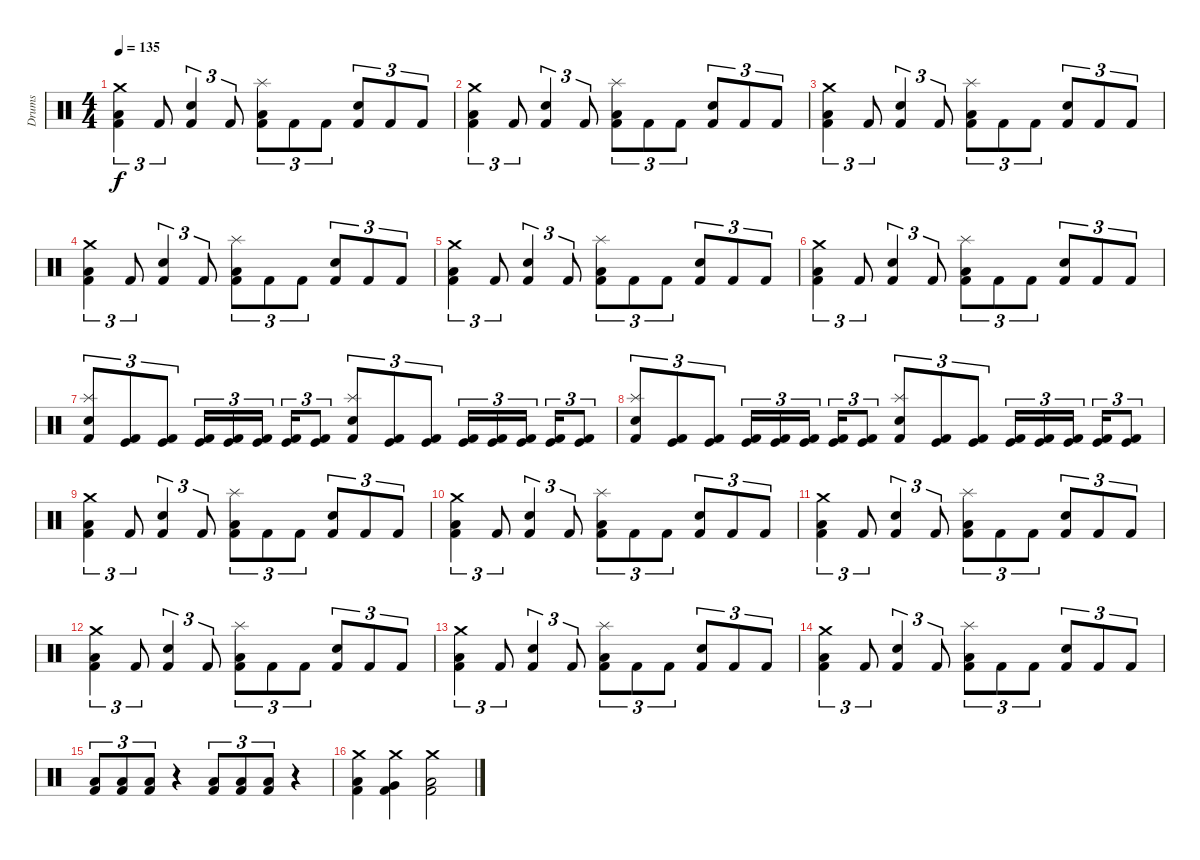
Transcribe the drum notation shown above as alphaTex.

\track ("Drums" "Drums") {instrument percussion}
\staff {score}
\articulation defaults
\ts (4 4)
\tempo 135
\clef neutral
\ks c
("Crash medium (hit)" "Low Floor Tom (hit)" "Kick (hit) 2").4{tu (3 2) dy f} "Kick (hit) 2".8{tu (3 2)} ("Snare (hit) 2" "Kick (hit) 2").4{tu (3 2)} "Kick (hit) 2".8{tu (3 2)} ("Splash (hit)" "Low Floor Tom (hit)" "Kick (hit) 2").8{tu (3 2)} "Kick (hit) 2".8{tu (3 2)} "Kick (hit) 2".8{tu (3 2)} ("Snare (hit) 2" "Kick (hit) 2").8{tu (3 2)} "Kick (hit) 2".8{tu (3 2)} "Kick (hit) 2".8{tu (3 2)} |
("Crash medium (hit)" "Low Floor Tom (hit)" "Kick (hit) 2").4{tu (3 2)} "Kick (hit) 2".8{tu (3 2)} ("Snare (hit) 2" "Kick (hit) 2").4{tu (3 2)} "Kick (hit) 2".8{tu (3 2)} ("Splash (hit)" "Low Floor Tom (hit)" "Kick (hit) 2").8{tu (3 2)} "Kick (hit) 2".8{tu (3 2)} "Kick (hit) 2".8{tu (3 2)} ("Snare (hit) 2" "Kick (hit) 2").8{tu (3 2)} "Kick (hit) 2".8{tu (3 2)} "Kick (hit) 2".8{tu (3 2)} |
("Crash medium (hit)" "Low Floor Tom (hit)" "Kick (hit) 2").4{tu (3 2)} "Kick (hit) 2".8{tu (3 2)} ("Snare (hit) 2" "Kick (hit) 2").4{tu (3 2)} "Kick (hit) 2".8{tu (3 2)} ("Splash (hit)" "Low Floor Tom (hit)" "Kick (hit) 2").8{tu (3 2)} "Kick (hit) 2".8{tu (3 2)} "Kick (hit) 2".8{tu (3 2)} ("Snare (hit) 2" "Kick (hit) 2").8{tu (3 2)} "Kick (hit) 2".8{tu (3 2)} "Kick (hit) 2".8{tu (3 2)} |
("Crash medium (hit)" "Low Floor Tom (hit)" "Kick (hit) 2").4{tu (3 2)} "Kick (hit) 2".8{tu (3 2)} ("Snare (hit) 2" "Kick (hit) 2").4{tu (3 2)} "Kick (hit) 2".8{tu (3 2)} ("Splash (hit)" "Low Floor Tom (hit)" "Kick (hit) 2").8{tu (3 2)} "Kick (hit) 2".8{tu (3 2)} "Kick (hit) 2".8{tu (3 2)} ("Snare (hit) 2" "Kick (hit) 2").8{tu (3 2)} "Kick (hit) 2".8{tu (3 2)} "Kick (hit) 2".8{tu (3 2)} |
("Crash medium (hit)" "Low Floor Tom (hit)" "Kick (hit) 2").4{tu (3 2)} "Kick (hit) 2".8{tu (3 2)} ("Snare (hit) 2" "Kick (hit) 2").4{tu (3 2)} "Kick (hit) 2".8{tu (3 2)} ("Splash (hit)" "Low Floor Tom (hit)" "Kick (hit) 2").8{tu (3 2)} "Kick (hit) 2".8{tu (3 2)} "Kick (hit) 2".8{tu (3 2)} ("Snare (hit) 2" "Kick (hit) 2").8{tu (3 2)} "Kick (hit) 2".8{tu (3 2)} "Kick (hit) 2".8{tu (3 2)} |
("Crash medium (hit)" "Low Floor Tom (hit)" "Kick (hit) 2").4{tu (3 2)} "Kick (hit) 2".8{tu (3 2)} ("Snare (hit) 2" "Kick (hit) 2").4{tu (3 2)} "Kick (hit) 2".8{tu (3 2)} ("Splash (hit)" "Low Floor Tom (hit)" "Kick (hit) 2").8{tu (3 2)} "Kick (hit) 2".8{tu (3 2)} "Kick (hit) 2".8{tu (3 2)} ("Snare (hit) 2" "Kick (hit) 2").8{tu (3 2)} "Kick (hit) 2".8{tu (3 2)} "Kick (hit) 2".8{tu (3 2)} |
("Splash (hit)" "Electric Snare (hit)" "Kick (hit) 2").8{tu (3 2)} ("Kick (hit)" "Kick (hit) 2").8{tu (3 2)} ("Kick (hit)" "Kick (hit) 2").8{tu (3 2)} ("Kick (hit)" "Kick (hit) 2").16{tu (3 2)} ("Kick (hit)" "Kick (hit) 2").16{tu (3 2)} ("Kick (hit)" "Kick (hit) 2").16{tu (3 2)} ("Kick (hit)" "Kick (hit) 2").16{tu (3 2)} ("Kick (hit)" "Kick (hit) 2").8{tu (3 2)} ("Splash (hit)" "Electric Snare (hit)" "Kick (hit) 2").8{tu (3 2)} ("Kick (hit)" "Kick (hit) 2").8{tu (3 2)} ("Kick (hit)" "Kick (hit) 2").8{tu (3 2)} ("Kick (hit)" "Kick (hit) 2").16{tu (3 2)} ("Kick (hit)" "Kick (hit) 2").16{tu (3 2)} ("Kick (hit)" "Kick (hit) 2").16{tu (3 2)} ("Kick (hit)" "Kick (hit) 2").16{tu (3 2)} ("Kick (hit)" "Kick (hit) 2").8{tu (3 2)} |
("Splash (hit)" "Electric Snare (hit)" "Kick (hit) 2").8{tu (3 2)} ("Kick (hit)" "Kick (hit) 2").8{tu (3 2)} ("Kick (hit)" "Kick (hit) 2").8{tu (3 2)} ("Kick (hit)" "Kick (hit) 2").16{tu (3 2)} ("Kick (hit)" "Kick (hit) 2").16{tu (3 2)} ("Kick (hit)" "Kick (hit) 2").16{tu (3 2)} ("Kick (hit)" "Kick (hit) 2").16{tu (3 2)} ("Kick (hit)" "Kick (hit) 2").8{tu (3 2)} ("Splash (hit)" "Electric Snare (hit)" "Kick (hit) 2").8{tu (3 2)} ("Kick (hit)" "Kick (hit) 2").8{tu (3 2)} ("Kick (hit)" "Kick (hit) 2").8{tu (3 2)} ("Kick (hit)" "Kick (hit) 2").16{tu (3 2)} ("Kick (hit)" "Kick (hit) 2").16{tu (3 2)} ("Kick (hit)" "Kick (hit) 2").16{tu (3 2)} ("Kick (hit)" "Kick (hit) 2").16{tu (3 2)} ("Kick (hit)" "Kick (hit) 2").8{tu (3 2)} |
("Crash medium (hit)" "Low Floor Tom (hit)" "Kick (hit) 2").4{tu (3 2)} "Kick (hit) 2".8{tu (3 2)} ("Snare (hit) 2" "Kick (hit) 2").4{tu (3 2)} "Kick (hit) 2".8{tu (3 2)} ("Splash (hit)" "Low Floor Tom (hit)" "Kick (hit) 2").8{tu (3 2)} "Kick (hit) 2".8{tu (3 2)} "Kick (hit) 2".8{tu (3 2)} ("Snare (hit) 2" "Kick (hit) 2").8{tu (3 2)} "Kick (hit) 2".8{tu (3 2)} "Kick (hit) 2".8{tu (3 2)} |
("Crash medium (hit)" "Low Floor Tom (hit)" "Kick (hit) 2").4{tu (3 2)} "Kick (hit) 2".8{tu (3 2)} ("Snare (hit) 2" "Kick (hit) 2").4{tu (3 2)} "Kick (hit) 2".8{tu (3 2)} ("Splash (hit)" "Low Floor Tom (hit)" "Kick (hit) 2").8{tu (3 2)} "Kick (hit) 2".8{tu (3 2)} "Kick (hit) 2".8{tu (3 2)} ("Snare (hit) 2" "Kick (hit) 2").8{tu (3 2)} "Kick (hit) 2".8{tu (3 2)} "Kick (hit) 2".8{tu (3 2)} |
("Crash medium (hit)" "Low Floor Tom (hit)" "Kick (hit) 2").4{tu (3 2)} "Kick (hit) 2".8{tu (3 2)} ("Snare (hit) 2" "Kick (hit) 2").4{tu (3 2)} "Kick (hit) 2".8{tu (3 2)} ("Splash (hit)" "Low Floor Tom (hit)" "Kick (hit) 2").8{tu (3 2)} "Kick (hit) 2".8{tu (3 2)} "Kick (hit) 2".8{tu (3 2)} ("Snare (hit) 2" "Kick (hit) 2").8{tu (3 2)} "Kick (hit) 2".8{tu (3 2)} "Kick (hit) 2".8{tu (3 2)} |
("Crash medium (hit)" "Low Floor Tom (hit)" "Kick (hit) 2").4{tu (3 2)} "Kick (hit) 2".8{tu (3 2)} ("Snare (hit) 2" "Kick (hit) 2").4{tu (3 2)} "Kick (hit) 2".8{tu (3 2)} ("Splash (hit)" "Low Floor Tom (hit)" "Kick (hit) 2").8{tu (3 2)} "Kick (hit) 2".8{tu (3 2)} "Kick (hit) 2".8{tu (3 2)} ("Snare (hit) 2" "Kick (hit) 2").8{tu (3 2)} "Kick (hit) 2".8{tu (3 2)} "Kick (hit) 2".8{tu (3 2)} |
("Crash medium (hit)" "Low Floor Tom (hit)" "Kick (hit) 2").4{tu (3 2)} "Kick (hit) 2".8{tu (3 2)} ("Snare (hit) 2" "Kick (hit) 2").4{tu (3 2)} "Kick (hit) 2".8{tu (3 2)} ("Splash (hit)" "Low Floor Tom (hit)" "Kick (hit) 2").8{tu (3 2)} "Kick (hit) 2".8{tu (3 2)} "Kick (hit) 2".8{tu (3 2)} ("Snare (hit) 2" "Kick (hit) 2").8{tu (3 2)} "Kick (hit) 2".8{tu (3 2)} "Kick (hit) 2".8{tu (3 2)} |
("Crash medium (hit)" "Low Floor Tom (hit)" "Kick (hit) 2").4{tu (3 2)} "Kick (hit) 2".8{tu (3 2)} ("Snare (hit) 2" "Kick (hit) 2").4{tu (3 2)} "Kick (hit) 2".8{tu (3 2)} ("Splash (hit)" "Low Floor Tom (hit)" "Kick (hit) 2").8{tu (3 2)} "Kick (hit) 2".8{tu (3 2)} "Kick (hit) 2".8{tu (3 2)} ("Snare (hit) 2" "Kick (hit) 2").8{tu (3 2)} "Kick (hit) 2".8{tu (3 2)} "Kick (hit) 2".8{tu (3 2)} |
("Low Floor Tom (hit)" "Kick (hit) 2").8{tu (3 2)} ("Low Floor Tom (hit)" "Kick (hit) 2").8{tu (3 2)} ("Low Floor Tom (hit)" "Kick (hit) 2").8{tu (3 2)} r.4 ("Low Floor Tom (hit)" "Kick (hit) 2").8{tu (3 2)} ("Low Floor Tom (hit)" "Kick (hit) 2").8{tu (3 2)} ("Low Floor Tom (hit)" "Kick (hit) 2").8{tu (3 2)} r.4 |
("Crash medium (hit)" "Low Floor Tom (hit)" "Kick (hit) 2").4 ("Crash medium (hit)" "Very Low Tom (hit)" "Kick (hit) 2").4 ("Crash medium (hit)" "Low Tom (hit)" "Kick (hit) 2").2
